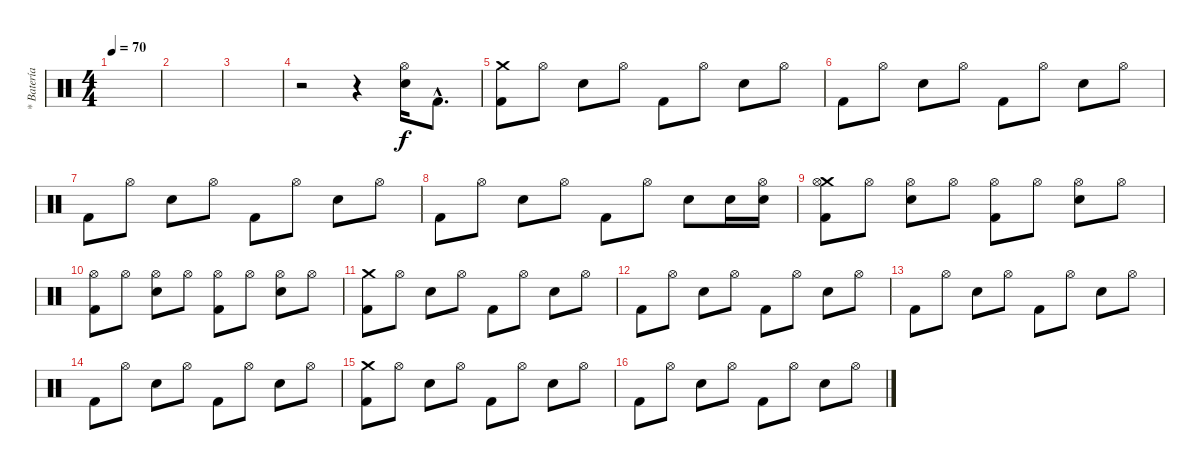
\track ("* Batería (Francisco)" "* Batería ") {instrument percussion}
\staff {score}
\articulation defaults
\ts (4 4)
\tempo 70
\clef neutral
\ks c
|
|
|
r.2 r.4 ("Hi-Hat (open)" "Snare (hit) 2").16 "Kick (hit) 2"{hac}.8{d} |
("Crash medium (hit)" "Kick (hit) 2").8 "Hi-Hat (open)".8 "Snare (hit) 2".8 "Hi-Hat (open)".8 "Kick (hit) 2".8 "Hi-Hat (open)".8 "Snare (hit) 2".8 "Hi-Hat (open)".8 |
"Kick (hit) 2".8 "Hi-Hat (open)".8 "Snare (hit) 2".8 "Hi-Hat (open)".8 "Kick (hit) 2".8 "Hi-Hat (open)".8 "Snare (hit) 2".8 "Hi-Hat (open)".8 |
"Kick (hit) 2".8 "Hi-Hat (open)".8 "Snare (hit) 2".8 "Hi-Hat (open)".8 "Kick (hit) 2".8 "Hi-Hat (open)".8 "Snare (hit) 2".8 "Hi-Hat (open)".8 |
"Kick (hit) 2".8 "Hi-Hat (open)".8 "Snare (hit) 2".8 "Hi-Hat (open)".8 "Kick (hit) 2".8 "Hi-Hat (open)".8 "Snare (hit) 2".8 "Electric Snare (hit)".16 ("Hi-Hat (open)" "Snare (hit) 2").16 |
("Kick (hit) 2" "Crash medium (hit)" "Hi-Hat (open)").8 "Hi-Hat (open)".8 ("Snare (hit) 2" "Hi-Hat (open)").8 "Hi-Hat (open)".8 ("Kick (hit) 2" "Hi-Hat (open)").8 "Hi-Hat (open)".8 ("Snare (hit) 2" "Hi-Hat (open)").8 "Hi-Hat (open)".8 |
("Kick (hit) 2" "Hi-Hat (open)").8 "Hi-Hat (open)".8 ("Snare (hit) 2" "Hi-Hat (open)").8 "Hi-Hat (open)".8 ("Kick (hit) 2" "Hi-Hat (open)").8 "Hi-Hat (open)".8 ("Snare (hit) 2" "Hi-Hat (open)").8 "Hi-Hat (open)".8 |
("Crash medium (hit)" "Kick (hit) 2").8 "Hi-Hat (open)".8 "Snare (hit) 2".8 "Hi-Hat (open)".8 "Kick (hit) 2".8 "Hi-Hat (open)".8 "Snare (hit) 2".8 "Hi-Hat (open)".8 |
"Kick (hit) 2".8 "Hi-Hat (open)".8 "Snare (hit) 2".8 "Hi-Hat (open)".8 "Kick (hit) 2".8 "Hi-Hat (open)".8 "Snare (hit) 2".8 "Hi-Hat (open)".8 |
"Kick (hit) 2".8 "Hi-Hat (open)".8 "Snare (hit) 2".8 "Hi-Hat (open)".8 "Kick (hit) 2".8 "Hi-Hat (open)".8 "Snare (hit) 2".8 "Hi-Hat (open)".8 |
"Kick (hit) 2".8 "Hi-Hat (open)".8 "Snare (hit) 2".8 "Hi-Hat (open)".8 "Kick (hit) 2".8 "Hi-Hat (open)".8 "Snare (hit) 2".8 "Hi-Hat (open)".8 |
("Crash medium (hit)" "Kick (hit) 2").8 "Hi-Hat (open)".8 "Snare (hit) 2".8 "Hi-Hat (open)".8 "Kick (hit) 2".8 "Hi-Hat (open)".8 "Snare (hit) 2".8 "Hi-Hat (open)".8 |
"Kick (hit) 2".8 "Hi-Hat (open)".8 "Snare (hit) 2".8 "Hi-Hat (open)".8 "Kick (hit) 2".8 "Hi-Hat (open)".8 "Snare (hit) 2".8 "Hi-Hat (open)".8
